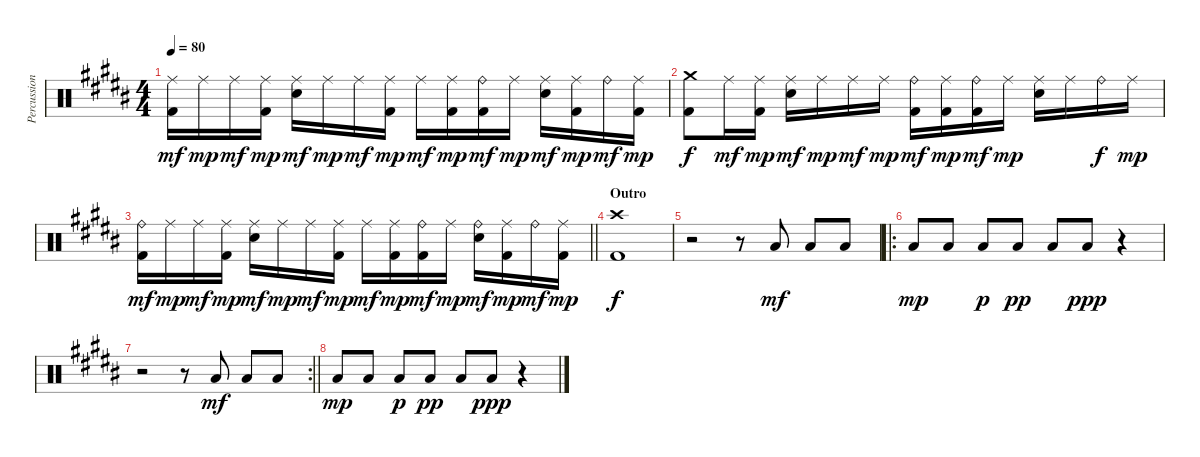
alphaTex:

\track ("Percussion" "Percussion") {instrument percussion}
\staff {score}
\articulation defaults
\ts (4 4)
\tempo 80
\clef neutral
\ks b
("Ride (middle)" "Kick (hit) 2").16{dy mf} "Ride (middle)".16{dy mp} "Ride (middle)".16{dy mf} ("Ride (middle)" "Kick (hit) 2").16{dy mp} ("Ride (middle)" "Snare (hit) 2").16{dy mf} "Ride (middle)".16{dy mp} "Ride (middle)".16{dy mf} ("Ride (middle)" "Kick (hit) 2").16{dy mp} "Ride (middle)".16{dy mf} ("Ride (middle)" "Kick (hit) 2").16{dy mp} ("Ride (bell)" "Kick (hit) 2").16{dy mf} "Ride (middle)".16{dy mp} ("Ride (middle)" "Snare (hit) 2").16{dy mf} ("Ride (middle)" "Kick (hit) 2").16{dy mp} "Ride (bell)".16{dy mf} ("Ride (middle)" "Kick (hit) 2").16{dy mp} |
("Crash medium (hit)" "Kick (hit) 2").8{dy f} "Ride (middle)".16{dy mf} ("Ride (middle)" "Kick (hit) 2").16{dy mp} ("Ride (middle)" "Snare (hit) 2").16{dy mf} "Ride (middle)".16{dy mp} "Ride (middle)".16{dy mf} "Ride (middle)".16{dy mp} ("Ride (bell)" "Kick (hit) 2").16{dy mf} ("Ride (middle)" "Kick (hit) 2").16{dy mp} ("Ride (bell)" "Kick (hit) 2").16{dy mf} "Ride (middle)".16{dy mp} ("Ride (middle)" "Snare (hit) 2").16 "Ride (middle)".16 "Ride (bell)".16{dy f} "Ride (middle)".16{dy mp} |
\barLineRight lightlight
("Ride (bell)" "Kick (hit) 2").16{dy mf} "Ride (middle)".16{dy mp} "Ride (middle)".16{dy mf} ("Ride (middle)" "Kick (hit) 2").16{dy mp} ("Ride (middle)" "Snare (hit) 2").16{dy mf} "Ride (middle)".16{dy mp} "Ride (middle)".16{dy mf} ("Ride (middle)" "Kick (hit) 2").16{dy mp} "Ride (middle)".16{dy mf} ("Ride (middle)" "Kick (hit) 2").16{dy mp} ("Ride (bell)" "Kick (hit) 2").16{dy mf} "Ride (middle)".16{dy mp} ("Ride (bell)" "Snare (hit) 2").16{dy mf} ("Ride (middle)" "Kick (hit) 2").16{dy mp} "Ride (bell)".16{dy mf} ("Ride (middle)" "Kick (hit) 2").16{dy mp} |
\section ("" "Outro")
("Crash high (hit)" "Kick (hit) 2").1{dy f} |
r.2 r.8 "Low Floor Tom (hit)".8{dy mf} "Low Floor Tom (hit)".8 "Low Floor Tom (hit)".8 |
\ro "Low Floor Tom (hit)".8{dy mp} "Low Floor Tom (hit)".8 "Low Floor Tom (hit)".8{dy p} "Low Floor Tom (hit)".8{dy pp} "Low Floor Tom (hit)".8 "Low Floor Tom (hit)".8{dy ppp}
r.4 |
\rc 2
\barLineRight lightlight
r.2 r.8 "Low Floor Tom (hit)".8{dy mf} "Low Floor Tom (hit)".8 "Low Floor Tom (hit)".8 |
"Low Floor Tom (hit)".8{dy mp} "Low Floor Tom (hit)".8 "Low Floor Tom (hit)".8{dy p} "Low Floor Tom (hit)".8{dy pp} "Low Floor Tom (hit)".8 "Low Floor Tom (hit)".8{dy ppp} r.4
